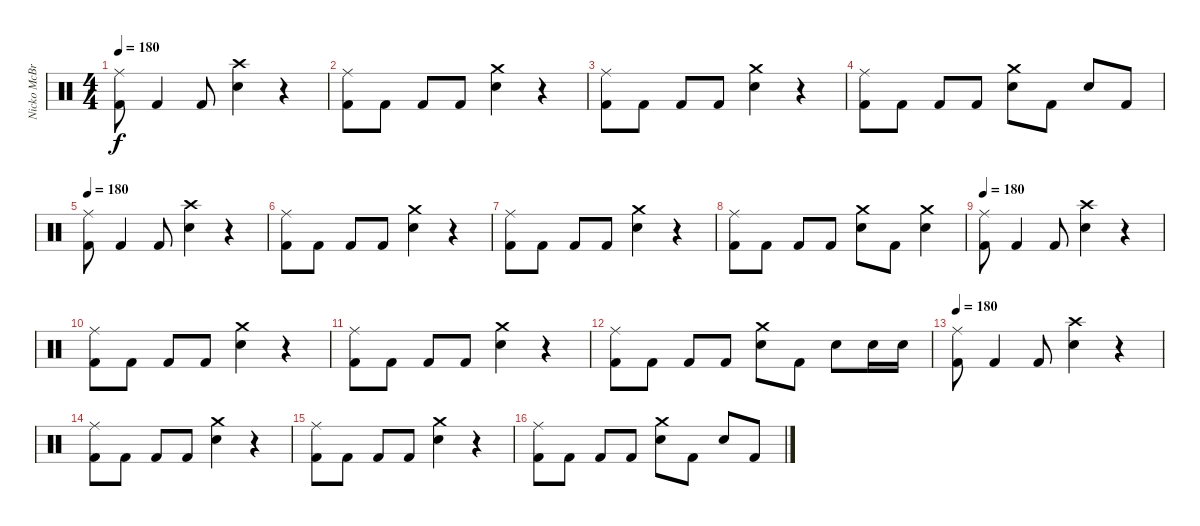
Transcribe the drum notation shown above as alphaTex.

\track ("Nicko McBrain" "Nicko McBr") {instrument percussion}
\staff {score}
\articulation defaults
\ts (4 4)
\tempo 180
\clef neutral
\ks c
("Ride (middle)" "Kick (hit) 2").8{dy f} "Kick (hit) 2".4 "Kick (hit) 2".8 ("Crash high (hit)" "Snare (hit) 2").4 r.4 |
("Ride (middle)" "Kick (hit) 2").8 "Kick (hit) 2".8 "Kick (hit) 2".8 "Kick (hit) 2".8 ("Crash medium (hit)" "Snare (hit) 2").4 r.4 |
("Ride (middle)" "Kick (hit) 2").8 "Kick (hit) 2".8 "Kick (hit) 2".8 "Kick (hit) 2".8 ("Crash medium (hit)" "Snare (hit) 2").4 r.4 |
("Ride (middle)" "Kick (hit) 2").8 "Kick (hit) 2".8 "Kick (hit) 2".8 "Kick (hit) 2".8 ("Crash medium (hit)" "Snare (hit) 2").8 "Kick (hit) 2".8 "Snare (hit) 2".8 "Kick (hit) 2".8 |
\tempo 180
("Ride (middle)" "Kick (hit) 2").8 "Kick (hit) 2".4 "Kick (hit) 2".8 ("Crash high (hit)" "Snare (hit) 2").4 r.4 |
("Ride (middle)" "Kick (hit) 2").8 "Kick (hit) 2".8 "Kick (hit) 2".8 "Kick (hit) 2".8 ("Crash medium (hit)" "Snare (hit) 2").4 r.4 |
("Ride (middle)" "Kick (hit) 2").8 "Kick (hit) 2".8 "Kick (hit) 2".8 "Kick (hit) 2".8 ("Crash medium (hit)" "Snare (hit) 2").4 r.4 |
("Ride (middle)" "Kick (hit) 2").8 "Kick (hit) 2".8 "Kick (hit) 2".8 "Kick (hit) 2".8 ("Crash medium (hit)" "Snare (hit) 2").8 "Kick (hit) 2".8 ("Crash medium (hit)" "Snare (hit) 2").4 |
\tempo 180
("Ride (middle)" "Kick (hit) 2").8 "Kick (hit) 2".4 "Kick (hit) 2".8 ("Crash high (hit)" "Snare (hit) 2").4 r.4 |
("Ride (middle)" "Kick (hit) 2").8 "Kick (hit) 2".8 "Kick (hit) 2".8 "Kick (hit) 2".8 ("Crash medium (hit)" "Snare (hit) 2").4 r.4 |
("Ride (middle)" "Kick (hit) 2").8 "Kick (hit) 2".8 "Kick (hit) 2".8 "Kick (hit) 2".8 ("Crash medium (hit)" "Snare (hit) 2").4 r.4 |
("Ride (middle)" "Kick (hit) 2").8 "Kick (hit) 2".8 "Kick (hit) 2".8 "Kick (hit) 2".8 ("Crash medium (hit)" "Snare (hit) 2").8 "Kick (hit) 2".8 "Snare (hit) 2".8 "Snare (hit) 2".16 "Snare (hit) 2".16 |
\tempo 180
("Ride (middle)" "Kick (hit) 2").8 "Kick (hit) 2".4 "Kick (hit) 2".8 ("Crash high (hit)" "Snare (hit) 2").4 r.4 |
("Ride (middle)" "Kick (hit) 2").8 "Kick (hit) 2".8 "Kick (hit) 2".8 "Kick (hit) 2".8 ("Crash medium (hit)" "Snare (hit) 2").4 r.4 |
("Ride (middle)" "Kick (hit) 2").8 "Kick (hit) 2".8 "Kick (hit) 2".8 "Kick (hit) 2".8 ("Crash medium (hit)" "Snare (hit) 2").4 r.4 |
("Ride (middle)" "Kick (hit) 2").8 "Kick (hit) 2".8 "Kick (hit) 2".8 "Kick (hit) 2".8 ("Crash medium (hit)" "Snare (hit) 2").8 "Kick (hit) 2".8 "Snare (hit) 2".8 "Kick (hit) 2".8
